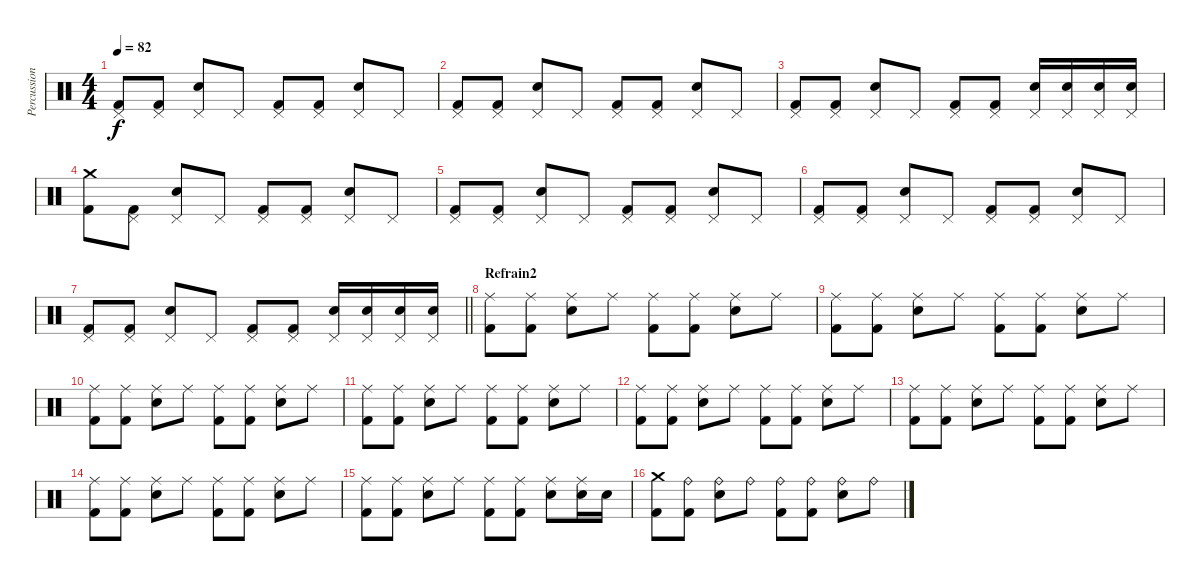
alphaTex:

\track ("Percussions" "Percussion") {instrument percussion}
\staff
\articulation defaults
\ts (4 4)
\tempo 82
\clef neutral
\ks c
("Pedal Hi-Hat (hit)" "Kick (hit) 2").8{dy f} ("Pedal Hi-Hat (hit)" "Kick (hit) 2").8 ("Pedal Hi-Hat (hit)" "Electric Snare (hit)").8 "Pedal Hi-Hat (hit)".8 ("Pedal Hi-Hat (hit)" "Kick (hit) 2").8 ("Pedal Hi-Hat (hit)" "Kick (hit) 2").8 ("Pedal Hi-Hat (hit)" "Electric Snare (hit)").8 "Pedal Hi-Hat (hit)".8 |
("Pedal Hi-Hat (hit)" "Kick (hit) 2").8 ("Pedal Hi-Hat (hit)" "Kick (hit) 2").8 ("Pedal Hi-Hat (hit)" "Electric Snare (hit)").8 "Pedal Hi-Hat (hit)".8 ("Pedal Hi-Hat (hit)" "Kick (hit) 2").8 ("Pedal Hi-Hat (hit)" "Kick (hit) 2").8 ("Pedal Hi-Hat (hit)" "Electric Snare (hit)").8 "Pedal Hi-Hat (hit)".8 |
("Pedal Hi-Hat (hit)" "Kick (hit) 2").8 ("Pedal Hi-Hat (hit)" "Kick (hit) 2").8 ("Pedal Hi-Hat (hit)" "Electric Snare (hit)").8 "Pedal Hi-Hat (hit)".8 ("Pedal Hi-Hat (hit)" "Kick (hit) 2").8 ("Pedal Hi-Hat (hit)" "Kick (hit) 2").8 ("Pedal Hi-Hat (hit)" "Electric Snare (hit)").16 ("Pedal Hi-Hat (hit)" "Electric Snare (hit)").16 ("Pedal Hi-Hat (hit)" "Electric Snare (hit)").16 ("Pedal Hi-Hat (hit)" "Electric Snare (hit)").16 |
("Crash medium (hit)" "Kick (hit) 2").8 ("Pedal Hi-Hat (hit)" "Kick (hit) 2").8 ("Pedal Hi-Hat (hit)" "Electric Snare (hit)").8 "Pedal Hi-Hat (hit)".8 ("Pedal Hi-Hat (hit)" "Kick (hit) 2").8 ("Pedal Hi-Hat (hit)" "Kick (hit) 2").8 ("Pedal Hi-Hat (hit)" "Electric Snare (hit)").8 "Pedal Hi-Hat (hit)".8 |
("Pedal Hi-Hat (hit)" "Kick (hit) 2").8 ("Pedal Hi-Hat (hit)" "Kick (hit) 2").8 ("Pedal Hi-Hat (hit)" "Electric Snare (hit)").8 "Pedal Hi-Hat (hit)".8 ("Pedal Hi-Hat (hit)" "Kick (hit) 2").8 ("Pedal Hi-Hat (hit)" "Kick (hit) 2").8 ("Pedal Hi-Hat (hit)" "Electric Snare (hit)").8 "Pedal Hi-Hat (hit)".8 |
("Pedal Hi-Hat (hit)" "Kick (hit) 2").8 ("Pedal Hi-Hat (hit)" "Kick (hit) 2").8 ("Pedal Hi-Hat (hit)" "Electric Snare (hit)").8 "Pedal Hi-Hat (hit)".8 ("Pedal Hi-Hat (hit)" "Kick (hit) 2").8 ("Pedal Hi-Hat (hit)" "Kick (hit) 2").8 ("Pedal Hi-Hat (hit)" "Electric Snare (hit)").8 "Pedal Hi-Hat (hit)".8 |
\barLineRight lightlight
("Pedal Hi-Hat (hit)" "Kick (hit) 2").8 ("Pedal Hi-Hat (hit)" "Kick (hit) 2").8 ("Pedal Hi-Hat (hit)" "Electric Snare (hit)").8 "Pedal Hi-Hat (hit)".8 ("Pedal Hi-Hat (hit)" "Kick (hit) 2").8 ("Pedal Hi-Hat (hit)" "Kick (hit) 2").8 ("Pedal Hi-Hat (hit)" "Electric Snare (hit)").16 ("Pedal Hi-Hat (hit)" "Electric Snare (hit)").16 ("Pedal Hi-Hat (hit)" "Electric Snare (hit)").16 ("Pedal Hi-Hat (hit)" "Electric Snare (hit)").16 |
\section ("" "Refrain2")
("Ride (middle)" "Kick (hit) 2").8 ("Ride (middle)" "Kick (hit) 2").8 ("Ride (middle)" "Electric Snare (hit)").8 "Ride (middle)".8 ("Ride (middle)" "Kick (hit) 2").8 ("Ride (middle)" "Kick (hit) 2").8 ("Ride (middle)" "Electric Snare (hit)").8 "Ride (middle)".8 |
("Ride (middle)" "Kick (hit) 2").8 ("Ride (middle)" "Kick (hit) 2").8 ("Ride (middle)" "Electric Snare (hit)").8 "Ride (middle)".8 ("Ride (middle)" "Kick (hit) 2").8 ("Ride (middle)" "Kick (hit) 2").8 ("Ride (middle)" "Electric Snare (hit)").8 "Ride (middle)".8 |
("Ride (middle)" "Kick (hit) 2").8 ("Ride (middle)" "Kick (hit) 2").8 ("Ride (middle)" "Electric Snare (hit)").8 "Ride (middle)".8 ("Ride (middle)" "Kick (hit) 2").8 ("Ride (middle)" "Kick (hit) 2").8 ("Ride (middle)" "Electric Snare (hit)").8 "Ride (middle)".8 |
("Ride (middle)" "Kick (hit) 2").8 ("Ride (middle)" "Kick (hit) 2").8 ("Ride (middle)" "Electric Snare (hit)").8 "Ride (middle)".8 ("Ride (middle)" "Kick (hit) 2").8 ("Ride (middle)" "Kick (hit) 2").8 ("Ride (middle)" "Electric Snare (hit)").8 "Ride (middle)".8 |
("Ride (middle)" "Kick (hit) 2").8 ("Ride (middle)" "Kick (hit) 2").8 ("Ride (middle)" "Electric Snare (hit)").8 "Ride (middle)".8 ("Ride (middle)" "Kick (hit) 2").8 ("Ride (middle)" "Kick (hit) 2").8 ("Ride (middle)" "Electric Snare (hit)").8 "Ride (middle)".8 |
("Ride (middle)" "Kick (hit) 2").8 ("Ride (middle)" "Kick (hit) 2").8 ("Ride (middle)" "Electric Snare (hit)").8 "Ride (middle)".8 ("Ride (middle)" "Kick (hit) 2").8 ("Ride (middle)" "Kick (hit) 2").8 ("Ride (middle)" "Electric Snare (hit)").8 "Ride (middle)".8 |
("Ride (middle)" "Kick (hit) 2").8 ("Ride (middle)" "Kick (hit) 2").8 ("Ride (middle)" "Electric Snare (hit)").8 "Ride (middle)".8 ("Ride (middle)" "Kick (hit) 2").8 ("Ride (middle)" "Kick (hit) 2").8 ("Ride (middle)" "Electric Snare (hit)").8 "Ride (middle)".8 |
("Ride (middle)" "Kick (hit) 2").8 ("Ride (middle)" "Kick (hit) 2").8 ("Ride (middle)" "Electric Snare (hit)").8 "Ride (middle)".8 ("Ride (middle)" "Kick (hit) 2").8 ("Ride (middle)" "Kick (hit) 2").8 ("Ride (middle)" "Electric Snare (hit)").8 ("Ride (middle)" "Electric Snare (hit)").16 "Electric Snare (hit)".16 |
("Crash medium (hit)" "Kick (hit) 2").8 ("Ride (bell)" "Kick (hit) 2").8 ("Ride (bell)" "Electric Snare (hit)").8 "Ride (bell)".8 ("Ride (bell)" "Kick (hit) 2").8 ("Ride (bell)" "Kick (hit) 2").8 ("Ride (bell)" "Electric Snare (hit)").8 "Ride (bell)".8
